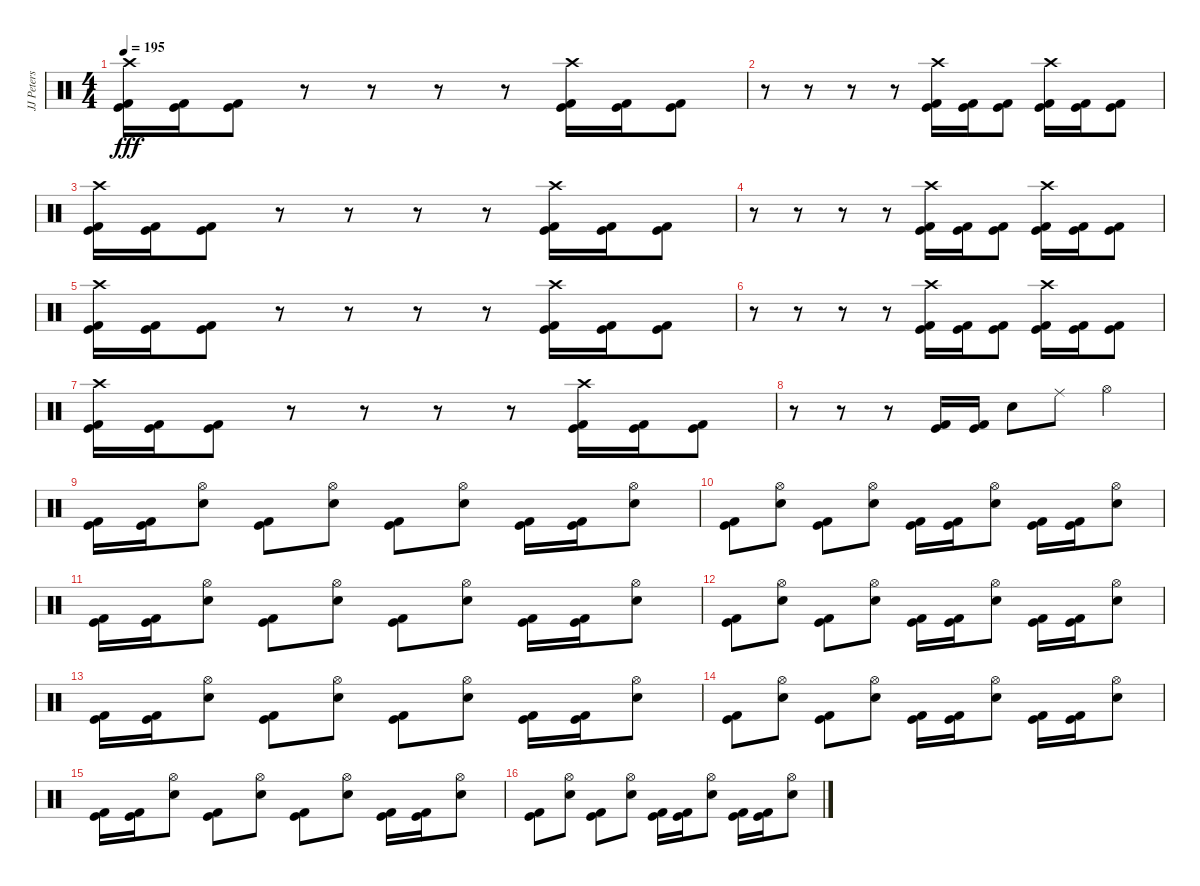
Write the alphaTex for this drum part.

\track ("JJ Peters" "JJ Peters") {instrument percussion}
\staff {score}
\articulation defaults
\ts (4 4)
\tempo 195
\clef neutral
\ks c
("Crash high (hit)" "Kick (hit)" "Kick (hit) 2").16{dy fff} ("Kick (hit)" "Kick (hit) 2").16 ("Kick (hit)" "Kick (hit) 2").8 r.8 r.8 r.8 r.8 ("Crash high (hit)" "Kick (hit)" "Kick (hit) 2").16 ("Kick (hit)" "Kick (hit) 2").16 ("Kick (hit)" "Kick (hit) 2").8 |
r.8 r.8 r.8 r.8 ("Crash high (hit)" "Kick (hit)" "Kick (hit) 2").16 ("Kick (hit)" "Kick (hit) 2").16 ("Kick (hit)" "Kick (hit) 2").8 ("Crash high (hit)" "Kick (hit)" "Kick (hit) 2").16 ("Kick (hit)" "Kick (hit) 2").16 ("Kick (hit)" "Kick (hit) 2").8 |
("Crash high (hit)" "Kick (hit)" "Kick (hit) 2").16 ("Kick (hit)" "Kick (hit) 2").16 ("Kick (hit)" "Kick (hit) 2").8 r.8 r.8 r.8 r.8 ("Crash high (hit)" "Kick (hit)" "Kick (hit) 2").16 ("Kick (hit)" "Kick (hit) 2").16 ("Kick (hit)" "Kick (hit) 2").8 |
r.8 r.8 r.8 r.8 ("Crash high (hit)" "Kick (hit)" "Kick (hit) 2").16 ("Kick (hit)" "Kick (hit) 2").16 ("Kick (hit)" "Kick (hit) 2").8 ("Crash high (hit)" "Kick (hit)" "Kick (hit) 2").16 ("Kick (hit)" "Kick (hit) 2").16 ("Kick (hit)" "Kick (hit) 2").8 |
("Crash high (hit)" "Kick (hit)" "Kick (hit) 2").16 ("Kick (hit)" "Kick (hit) 2").16 ("Kick (hit)" "Kick (hit) 2").8 r.8 r.8 r.8 r.8 ("Crash high (hit)" "Kick (hit)" "Kick (hit) 2").16 ("Kick (hit)" "Kick (hit) 2").16 ("Kick (hit)" "Kick (hit) 2").8 |
r.8 r.8 r.8 r.8 ("Crash high (hit)" "Kick (hit)" "Kick (hit) 2").16 ("Kick (hit)" "Kick (hit) 2").16 ("Kick (hit)" "Kick (hit) 2").8 ("Crash high (hit)" "Kick (hit)" "Kick (hit) 2").16 ("Kick (hit)" "Kick (hit) 2").16 ("Kick (hit)" "Kick (hit) 2").8 |
("Crash high (hit)" "Kick (hit)" "Kick (hit) 2").16 ("Kick (hit)" "Kick (hit) 2").16 ("Kick (hit)" "Kick (hit) 2").8 r.8 r.8 r.8 r.8 ("Crash high (hit)" "Kick (hit)" "Kick (hit) 2").16 ("Kick (hit)" "Kick (hit) 2").16 ("Kick (hit)" "Kick (hit) 2").8 |
r.8 r.8 r.8 ("Kick (hit)" "Kick (hit) 2").16 ("Kick (hit)" "Kick (hit) 2").16 "Electric Snare (hit)".8 "Ride (middle)".8 "Hi-Hat (open)".4 |
("Kick (hit)" "Kick (hit) 2").16 ("Kick (hit)" "Kick (hit) 2").16 ("Hi-Hat (open)" "Electric Snare (hit)").8 ("Kick (hit)" "Kick (hit) 2").8 ("Hi-Hat (open)" "Electric Snare (hit)").8 ("Kick (hit)" "Kick (hit) 2").8 ("Hi-Hat (open)" "Electric Snare (hit)").8 ("Kick (hit)" "Kick (hit) 2").16 ("Kick (hit)" "Kick (hit) 2").16 ("Hi-Hat (open)" "Electric Snare (hit)").8 |
("Kick (hit)" "Kick (hit) 2").8 ("Hi-Hat (open)" "Electric Snare (hit)").8 ("Kick (hit)" "Kick (hit) 2").8 ("Hi-Hat (open)" "Electric Snare (hit)").8 ("Kick (hit)" "Kick (hit) 2").16 ("Kick (hit)" "Kick (hit) 2").16 ("Hi-Hat (open)" "Electric Snare (hit)").8 ("Kick (hit)" "Kick (hit) 2").16 ("Kick (hit)" "Kick (hit) 2").16 ("Hi-Hat (open)" "Electric Snare (hit)").8 |
("Kick (hit)" "Kick (hit) 2").16 ("Kick (hit)" "Kick (hit) 2").16 ("Hi-Hat (open)" "Electric Snare (hit)").8 ("Kick (hit)" "Kick (hit) 2").8 ("Hi-Hat (open)" "Electric Snare (hit)").8 ("Kick (hit)" "Kick (hit) 2").8 ("Hi-Hat (open)" "Electric Snare (hit)").8 ("Kick (hit)" "Kick (hit) 2").16 ("Kick (hit)" "Kick (hit) 2").16 ("Hi-Hat (open)" "Electric Snare (hit)").8 |
("Kick (hit)" "Kick (hit) 2").8 ("Hi-Hat (open)" "Electric Snare (hit)").8 ("Kick (hit)" "Kick (hit) 2").8 ("Hi-Hat (open)" "Electric Snare (hit)").8 ("Kick (hit)" "Kick (hit) 2").16 ("Kick (hit)" "Kick (hit) 2").16 ("Hi-Hat (open)" "Electric Snare (hit)").8 ("Kick (hit)" "Kick (hit) 2").16 ("Kick (hit)" "Kick (hit) 2").16 ("Hi-Hat (open)" "Electric Snare (hit)").8 |
("Kick (hit)" "Kick (hit) 2").16 ("Kick (hit)" "Kick (hit) 2").16 ("Hi-Hat (open)" "Electric Snare (hit)").8 ("Kick (hit)" "Kick (hit) 2").8 ("Hi-Hat (open)" "Electric Snare (hit)").8 ("Kick (hit)" "Kick (hit) 2").8 ("Hi-Hat (open)" "Electric Snare (hit)").8 ("Kick (hit)" "Kick (hit) 2").16 ("Kick (hit)" "Kick (hit) 2").16 ("Hi-Hat (open)" "Electric Snare (hit)").8 |
("Kick (hit)" "Kick (hit) 2").8 ("Hi-Hat (open)" "Electric Snare (hit)").8 ("Kick (hit)" "Kick (hit) 2").8 ("Hi-Hat (open)" "Electric Snare (hit)").8 ("Kick (hit)" "Kick (hit) 2").16 ("Kick (hit)" "Kick (hit) 2").16 ("Hi-Hat (open)" "Electric Snare (hit)").8 ("Kick (hit)" "Kick (hit) 2").16 ("Kick (hit)" "Kick (hit) 2").16 ("Hi-Hat (open)" "Electric Snare (hit)").8 |
("Kick (hit)" "Kick (hit) 2").16 ("Kick (hit)" "Kick (hit) 2").16 ("Hi-Hat (open)" "Electric Snare (hit)").8 ("Kick (hit)" "Kick (hit) 2").8 ("Hi-Hat (open)" "Electric Snare (hit)").8 ("Kick (hit)" "Kick (hit) 2").8 ("Hi-Hat (open)" "Electric Snare (hit)").8 ("Kick (hit)" "Kick (hit) 2").16 ("Kick (hit)" "Kick (hit) 2").16 ("Hi-Hat (open)" "Electric Snare (hit)").8 |
("Kick (hit)" "Kick (hit) 2").8 ("Hi-Hat (open)" "Electric Snare (hit)").8 ("Kick (hit)" "Kick (hit) 2").8 ("Hi-Hat (open)" "Electric Snare (hit)").8 ("Kick (hit)" "Kick (hit) 2").16 ("Kick (hit)" "Kick (hit) 2").16 ("Hi-Hat (open)" "Electric Snare (hit)").8 ("Kick (hit)" "Kick (hit) 2").16 ("Kick (hit)" "Kick (hit) 2").16 ("Hi-Hat (open)" "Electric Snare (hit)").8
